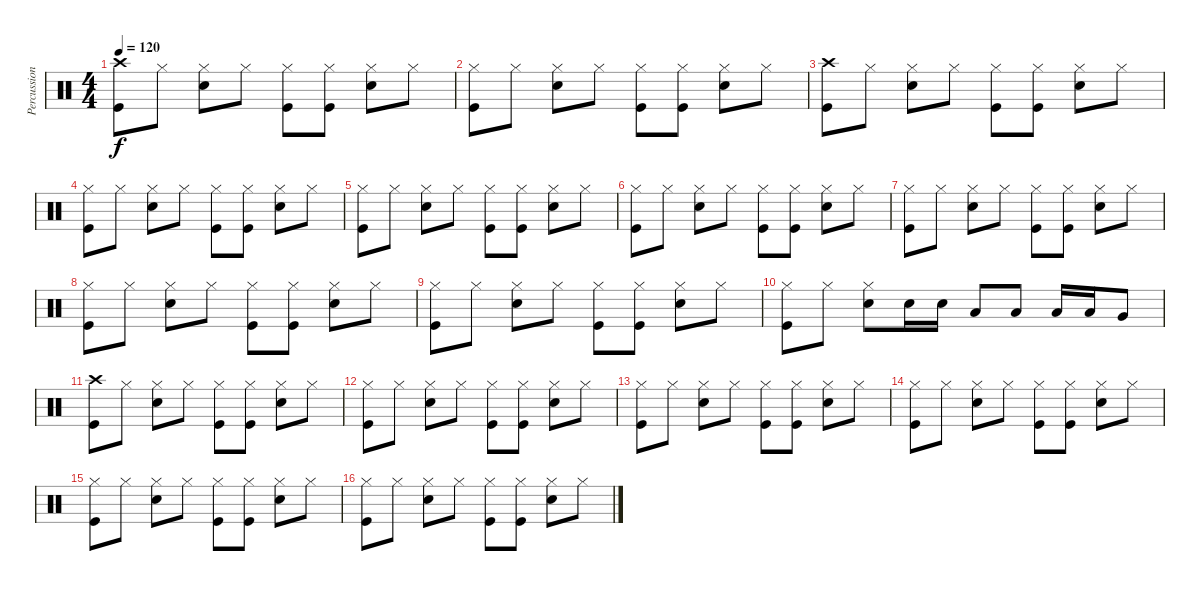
\track ("Percussion" "Percussion") {instrument percussion}
\staff {score}
\articulation defaults
\ts (4 4)
\tempo 120
\clef neutral
\ks c
("Crash high (hit)" "Kick (hit)").8{dy f} "Hi-Hat (closed)".8 ("Hi-Hat (closed)" "Snare (hit) 2").8 "Hi-Hat (closed)".8 ("Hi-Hat (closed)" "Kick (hit)").8 ("Hi-Hat (closed)" "Kick (hit)").8 ("Hi-Hat (closed)" "Snare (hit) 2").8 "Hi-Hat (closed)".8 |
("Hi-Hat (closed)" "Kick (hit)").8 "Hi-Hat (closed)".8 ("Hi-Hat (closed)" "Snare (hit) 2").8 "Hi-Hat (closed)".8 ("Hi-Hat (closed)" "Kick (hit)").8 ("Hi-Hat (closed)" "Kick (hit)").8 ("Hi-Hat (closed)" "Snare (hit) 2").8 "Hi-Hat (closed)".8 |
("Crash high (hit)" "Kick (hit)").8 "Hi-Hat (closed)".8 ("Hi-Hat (closed)" "Snare (hit) 2").8 "Hi-Hat (closed)".8 ("Hi-Hat (closed)" "Kick (hit)").8 ("Hi-Hat (closed)" "Kick (hit)").8 ("Hi-Hat (closed)" "Snare (hit) 2").8 "Hi-Hat (closed)".8 |
("Hi-Hat (closed)" "Kick (hit)").8 "Hi-Hat (closed)".8 ("Hi-Hat (closed)" "Snare (hit) 2").8 "Hi-Hat (closed)".8 ("Hi-Hat (closed)" "Kick (hit)").8 ("Hi-Hat (closed)" "Kick (hit)").8 ("Hi-Hat (closed)" "Snare (hit) 2").8 "Hi-Hat (closed)".8 |
("Hi-Hat (closed)" "Kick (hit)").8 "Hi-Hat (closed)".8 ("Hi-Hat (closed)" "Snare (hit) 2").8 "Hi-Hat (closed)".8 ("Hi-Hat (closed)" "Kick (hit)").8 ("Hi-Hat (closed)" "Kick (hit)").8 ("Hi-Hat (closed)" "Snare (hit) 2").8 "Hi-Hat (closed)".8 |
("Hi-Hat (closed)" "Kick (hit)").8 "Hi-Hat (closed)".8 ("Hi-Hat (closed)" "Snare (hit) 2").8 "Hi-Hat (closed)".8 ("Hi-Hat (closed)" "Kick (hit)").8 ("Hi-Hat (closed)" "Kick (hit)").8 ("Hi-Hat (closed)" "Snare (hit) 2").8 "Hi-Hat (closed)".8 |
("Hi-Hat (closed)" "Kick (hit)").8 "Hi-Hat (closed)".8 ("Hi-Hat (closed)" "Snare (hit) 2").8 "Hi-Hat (closed)".8 ("Hi-Hat (closed)" "Kick (hit)").8 ("Hi-Hat (closed)" "Kick (hit)").8 ("Hi-Hat (closed)" "Snare (hit) 2").8 "Hi-Hat (closed)".8 |
("Hi-Hat (closed)" "Kick (hit)").8 "Hi-Hat (closed)".8 ("Hi-Hat (closed)" "Snare (hit) 2").8 "Hi-Hat (closed)".8 ("Hi-Hat (closed)" "Kick (hit)").8 ("Hi-Hat (closed)" "Kick (hit)").8 ("Hi-Hat (closed)" "Snare (hit) 2").8 "Hi-Hat (closed)".8 |
("Hi-Hat (closed)" "Kick (hit)").8 "Hi-Hat (closed)".8 ("Hi-Hat (closed)" "Snare (hit) 2").8 "Hi-Hat (closed)".8 ("Hi-Hat (closed)" "Kick (hit)").8 ("Hi-Hat (closed)" "Kick (hit)").8 ("Hi-Hat (closed)" "Snare (hit) 2").8 "Hi-Hat (closed)".8 |
("Hi-Hat (closed)" "Kick (hit)").8 "Hi-Hat (closed)".8 ("Hi-Hat (closed)" "Snare (hit) 2").8 "Snare (hit) 2".16 "Snare (hit) 2".16 "Low Tom (hit)".8 "Low Tom (hit)".8 "Low Tom (hit)".16 "Low Tom (hit)".16 "Very Low Tom (hit)".8 |
("Crash high (hit)" "Kick (hit)").8 "Hi-Hat (closed)".8 ("Hi-Hat (closed)" "Snare (hit) 2").8 "Hi-Hat (closed)".8 ("Hi-Hat (closed)" "Kick (hit)").8 ("Hi-Hat (closed)" "Kick (hit)").8 ("Hi-Hat (closed)" "Snare (hit) 2").8 "Hi-Hat (closed)".8 |
("Hi-Hat (closed)" "Kick (hit)").8 "Hi-Hat (closed)".8 ("Hi-Hat (closed)" "Snare (hit) 2").8 "Hi-Hat (closed)".8 ("Hi-Hat (closed)" "Kick (hit)").8 ("Hi-Hat (closed)" "Kick (hit)").8 ("Hi-Hat (closed)" "Snare (hit) 2").8 "Hi-Hat (closed)".8 |
("Hi-Hat (closed)" "Kick (hit)").8 "Hi-Hat (closed)".8 ("Hi-Hat (closed)" "Snare (hit) 2").8 "Hi-Hat (closed)".8 ("Hi-Hat (closed)" "Kick (hit)").8 ("Hi-Hat (closed)" "Kick (hit)").8 ("Hi-Hat (closed)" "Snare (hit) 2").8 "Hi-Hat (closed)".8 |
("Hi-Hat (closed)" "Kick (hit)").8 "Hi-Hat (closed)".8 ("Hi-Hat (closed)" "Snare (hit) 2").8 "Hi-Hat (closed)".8 ("Hi-Hat (closed)" "Kick (hit)").8 ("Hi-Hat (closed)" "Kick (hit)").8 ("Hi-Hat (closed)" "Snare (hit) 2").8 "Hi-Hat (closed)".8 |
("Hi-Hat (closed)" "Kick (hit)").8 "Hi-Hat (closed)".8 ("Hi-Hat (closed)" "Snare (hit) 2").8 "Hi-Hat (closed)".8 ("Hi-Hat (closed)" "Kick (hit)").8 ("Hi-Hat (closed)" "Kick (hit)").8 ("Hi-Hat (closed)" "Snare (hit) 2").8 "Hi-Hat (closed)".8 |
("Hi-Hat (closed)" "Kick (hit)").8 "Hi-Hat (closed)".8 ("Hi-Hat (closed)" "Snare (hit) 2").8 "Hi-Hat (closed)".8 ("Hi-Hat (closed)" "Kick (hit)").8 ("Hi-Hat (closed)" "Kick (hit)").8 ("Hi-Hat (closed)" "Snare (hit) 2").8 "Hi-Hat (closed)".8
